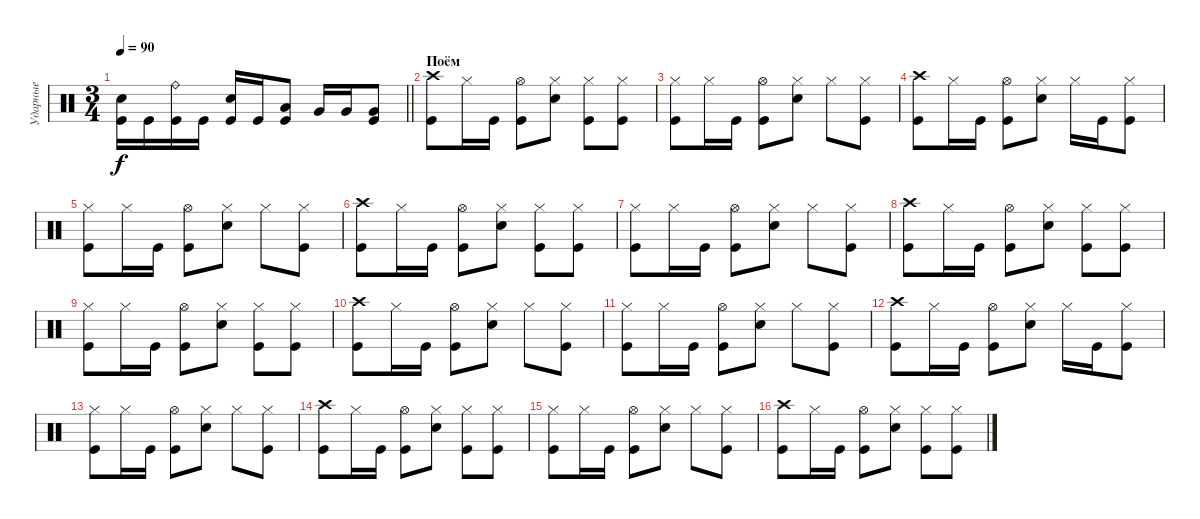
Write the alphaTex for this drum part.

\track ("Ударные" "Ударные") {instrument percussion}
\staff {score}
\articulation defaults
\ts (3 4)
\tempo 90
\clef neutral
\barLineRight lightlight
\ks c
("Electric Snare (hit)" "Kick (hit)").16{dy f} "Kick (hit)".16 ("Ride (bell)" "Kick (hit)").16 "Kick (hit)".16 ("Electric Snare (hit)" "Kick (hit)").16 "Kick (hit)".16 ("Low Tom (hit)" "Kick (hit)").8 "Very Low Tom (hit)".16 "Very Low Tom (hit)".16 ("Very Low Tom (hit)" "Kick (hit)").8 |
\section ("" "Поём")
("Crash high (hit)" "Kick (hit)").8 "Hi-Hat (closed)".16 "Kick (hit)".16 ("Hi-Hat (open)" "Kick (hit)").8 ("Hi-Hat (closed)" "Electric Snare (hit)").8 ("Hi-Hat (closed)" "Kick (hit)").8 ("Hi-Hat (closed)" "Kick (hit)").8 |
("Hi-Hat (closed)" "Kick (hit)").8 "Hi-Hat (closed)".16 "Kick (hit)".16 ("Hi-Hat (open)" "Kick (hit)").8 ("Hi-Hat (closed)" "Electric Snare (hit)").8 "Hi-Hat (closed)".8 ("Hi-Hat (closed)" "Kick (hit)").8 |
("Crash high (hit)" "Kick (hit)").8 "Hi-Hat (closed)".16 "Kick (hit)".16 ("Hi-Hat (open)" "Kick (hit)").8 ("Hi-Hat (closed)" "Electric Snare (hit)").8 "Hi-Hat (closed)".16 "Kick (hit)".16 ("Hi-Hat (closed)" "Kick (hit)").8 |
("Hi-Hat (closed)" "Kick (hit)").8 "Hi-Hat (closed)".16 "Kick (hit)".16 ("Hi-Hat (open)" "Kick (hit)").8 ("Hi-Hat (closed)" "Electric Snare (hit)").8 "Hi-Hat (closed)".8 ("Hi-Hat (closed)" "Kick (hit)").8 |
("Crash high (hit)" "Kick (hit)").8 "Hi-Hat (closed)".16 "Kick (hit)".16 ("Hi-Hat (open)" "Kick (hit)").8 ("Hi-Hat (closed)" "Electric Snare (hit)").8 ("Hi-Hat (closed)" "Kick (hit)").8 ("Hi-Hat (closed)" "Kick (hit)").8 |
("Hi-Hat (closed)" "Kick (hit)").8 "Hi-Hat (closed)".16 "Kick (hit)".16 ("Hi-Hat (open)" "Kick (hit)").8 ("Hi-Hat (closed)" "Electric Snare (hit)").8 "Hi-Hat (closed)".8 ("Hi-Hat (closed)" "Kick (hit)").8 |
("Crash high (hit)" "Kick (hit)").8 "Hi-Hat (closed)".16 "Kick (hit)".16 ("Hi-Hat (open)" "Kick (hit)").8 ("Hi-Hat (closed)" "Electric Snare (hit)").8 ("Hi-Hat (closed)" "Kick (hit)").8 ("Hi-Hat (closed)" "Kick (hit)").8 |
("Hi-Hat (closed)" "Kick (hit)").8 "Hi-Hat (closed)".16 "Kick (hit)".16 ("Hi-Hat (open)" "Kick (hit)").8 ("Hi-Hat (closed)" "Electric Snare (hit)").8 ("Hi-Hat (closed)" "Kick (hit)").8 ("Hi-Hat (closed)" "Kick (hit)").8 |
("Crash high (hit)" "Kick (hit)").8 "Hi-Hat (closed)".16 "Kick (hit)".16 ("Hi-Hat (open)" "Kick (hit)").8 ("Hi-Hat (closed)" "Electric Snare (hit)").8 "Hi-Hat (closed)".8 ("Hi-Hat (closed)" "Kick (hit)").8 |
("Hi-Hat (closed)" "Kick (hit)").8 "Hi-Hat (closed)".16 "Kick (hit)".16 ("Hi-Hat (open)" "Kick (hit)").8 ("Hi-Hat (closed)" "Electric Snare (hit)").8 "Hi-Hat (closed)".8 ("Hi-Hat (closed)" "Kick (hit)").8 |
("Crash high (hit)" "Kick (hit)").8 "Hi-Hat (closed)".16 "Kick (hit)".16 ("Hi-Hat (open)" "Kick (hit)").8 ("Hi-Hat (closed)" "Electric Snare (hit)").8 "Hi-Hat (closed)".16 "Kick (hit)".16 ("Hi-Hat (closed)" "Kick (hit)").8 |
("Hi-Hat (closed)" "Kick (hit)").8 "Hi-Hat (closed)".16 "Kick (hit)".16 ("Hi-Hat (open)" "Kick (hit)").8 ("Hi-Hat (closed)" "Electric Snare (hit)").8 "Hi-Hat (closed)".8 ("Hi-Hat (closed)" "Kick (hit)").8 |
("Crash high (hit)" "Kick (hit)").8 "Hi-Hat (closed)".16 "Kick (hit)".16 ("Hi-Hat (open)" "Kick (hit)").8 ("Hi-Hat (closed)" "Electric Snare (hit)").8 ("Hi-Hat (closed)" "Kick (hit)").8 ("Hi-Hat (closed)" "Kick (hit)").8 |
("Hi-Hat (closed)" "Kick (hit)").8 "Hi-Hat (closed)".16 "Kick (hit)".16 ("Hi-Hat (open)" "Kick (hit)").8 ("Hi-Hat (closed)" "Electric Snare (hit)").8 "Hi-Hat (closed)".8 ("Hi-Hat (closed)" "Kick (hit)").8 |
("Crash high (hit)" "Kick (hit)").8 "Hi-Hat (closed)".16 "Kick (hit)".16 ("Hi-Hat (open)" "Kick (hit)").8 ("Hi-Hat (closed)" "Electric Snare (hit)").8 ("Hi-Hat (closed)" "Kick (hit)").8 ("Hi-Hat (closed)" "Kick (hit)").8
